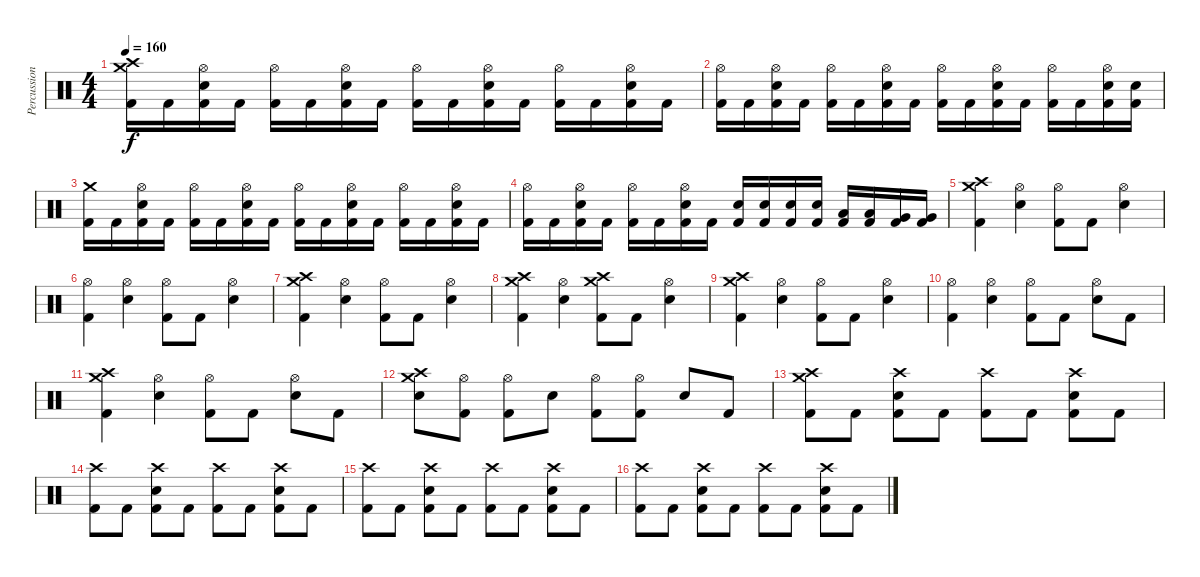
\track ("Percussion" "Percussion") {instrument percussion}
\staff {score}
\articulation defaults
\ts (4 4)
\tempo 160
\clef neutral
\ks c
("Crash medium (hit)" "Crash high (hit)" "Kick (hit) 2").16{dy f} "Kick (hit) 2".16 ("Hi-Hat (open)" "Electric Snare (hit)" "Kick (hit) 2").16 "Kick (hit) 2".16 ("Hi-Hat (open)" "Kick (hit) 2").16 "Kick (hit) 2".16 ("Hi-Hat (open)" "Electric Snare (hit)" "Kick (hit) 2").16 "Kick (hit) 2".16 ("Hi-Hat (open)" "Kick (hit) 2").16 "Kick (hit) 2".16 ("Hi-Hat (open)" "Electric Snare (hit)" "Kick (hit) 2").16 "Kick (hit) 2".16 ("Hi-Hat (open)" "Kick (hit) 2").16 "Kick (hit) 2".16 ("Hi-Hat (open)" "Electric Snare (hit)" "Kick (hit) 2").16 "Kick (hit) 2".16 |
("Hi-Hat (open)" "Kick (hit) 2").16 "Kick (hit) 2".16 ("Hi-Hat (open)" "Electric Snare (hit)" "Kick (hit) 2").16 "Kick (hit) 2".16 ("Hi-Hat (open)" "Kick (hit) 2").16 "Kick (hit) 2".16 ("Hi-Hat (open)" "Electric Snare (hit)" "Kick (hit) 2").16 "Kick (hit) 2".16 ("Hi-Hat (open)" "Kick (hit) 2").16 "Kick (hit) 2".16 ("Hi-Hat (open)" "Electric Snare (hit)" "Kick (hit) 2").16 "Kick (hit) 2".16 ("Hi-Hat (open)" "Kick (hit) 2").16 "Kick (hit) 2".16 ("Hi-Hat (open)" "Electric Snare (hit)" "Kick (hit) 2").16 ("Electric Snare (hit)" "Kick (hit) 2").16 |
("Crash medium (hit)" "Kick (hit) 2").16 "Kick (hit) 2".16 ("Hi-Hat (open)" "Electric Snare (hit)" "Kick (hit) 2").16 "Kick (hit) 2".16 ("Hi-Hat (open)" "Kick (hit) 2").16 "Kick (hit) 2".16 ("Hi-Hat (open)" "Electric Snare (hit)" "Kick (hit) 2").16 "Kick (hit) 2".16 ("Hi-Hat (open)" "Kick (hit) 2").16 "Kick (hit) 2".16 ("Hi-Hat (open)" "Electric Snare (hit)" "Kick (hit) 2").16 "Kick (hit) 2".16 ("Hi-Hat (open)" "Kick (hit) 2").16 "Kick (hit) 2".16 ("Hi-Hat (open)" "Electric Snare (hit)" "Kick (hit) 2").16 "Kick (hit) 2".16 |
("Hi-Hat (open)" "Kick (hit) 2").16 "Kick (hit) 2".16 ("Hi-Hat (open)" "Electric Snare (hit)" "Kick (hit) 2").16 "Kick (hit) 2".16 ("Hi-Hat (open)" "Kick (hit) 2").16 "Kick (hit) 2".16 ("Hi-Hat (open)" "Electric Snare (hit)" "Kick (hit) 2").16 "Kick (hit) 2".16 ("Electric Snare (hit)" "Kick (hit) 2").16 ("Electric Snare (hit)" "Kick (hit) 2").16 ("Electric Snare (hit)" "Kick (hit) 2").16 ("Electric Snare (hit)" "Kick (hit) 2").16 ("Low Tom (hit)" "Kick (hit) 2").16 ("Low Tom (hit)" "Kick (hit) 2").16 ("Very Low Tom (hit)" "Kick (hit) 2").16 ("Very Low Tom (hit)" "Kick (hit) 2").16 |
("Crash medium (hit)" "Crash high (hit)" "Kick (hit) 2").4 ("Hi-Hat (open)" "Electric Snare (hit)").4 ("Hi-Hat (open)" "Kick (hit) 2").8 "Kick (hit) 2".8 ("Hi-Hat (open)" "Electric Snare (hit)").4 |
("Hi-Hat (open)" "Kick (hit) 2").4 ("Hi-Hat (open)" "Electric Snare (hit)").4 ("Hi-Hat (open)" "Kick (hit) 2").8 "Kick (hit) 2".8 ("Hi-Hat (open)" "Electric Snare (hit)").4 |
("Crash medium (hit)" "Crash high (hit)" "Kick (hit) 2").4 ("Hi-Hat (open)" "Electric Snare (hit)").4 ("Hi-Hat (open)" "Kick (hit) 2").8 "Kick (hit) 2".8 ("Hi-Hat (open)" "Electric Snare (hit)").4 |
("Crash medium (hit)" "Crash high (hit)" "Kick (hit) 2").4 ("Hi-Hat (open)" "Electric Snare (hit)").4 ("Crash medium (hit)" "Crash high (hit)" "Kick (hit) 2").8 "Kick (hit) 2".8 ("Hi-Hat (open)" "Electric Snare (hit)").4 |
("Crash medium (hit)" "Crash high (hit)" "Kick (hit) 2").4 ("Hi-Hat (open)" "Electric Snare (hit)").4 ("Hi-Hat (open)" "Kick (hit) 2").8 "Kick (hit) 2".8 ("Hi-Hat (open)" "Electric Snare (hit)").4 |
("Hi-Hat (open)" "Kick (hit) 2").4 ("Hi-Hat (open)" "Electric Snare (hit)").4 ("Hi-Hat (open)" "Kick (hit) 2").8 "Kick (hit) 2".8 ("Hi-Hat (open)" "Electric Snare (hit)").8 "Kick (hit) 2".8 |
("Crash high (hit)" "Crash medium (hit)" "Kick (hit) 2").4 ("Hi-Hat (open)" "Electric Snare (hit)").4 ("Hi-Hat (open)" "Kick (hit) 2").8 "Kick (hit) 2".8 ("Hi-Hat (open)" "Electric Snare (hit)").8 "Kick (hit) 2".8 |
("Crash medium (hit)" "Crash high (hit)" "Electric Snare (hit)").8 ("Hi-Hat (open)" "Kick (hit) 2").8 ("Hi-Hat (open)" "Kick (hit) 2").8 "Electric Snare (hit)".8 ("Hi-Hat (open)" "Kick (hit) 2").8 ("Hi-Hat (open)" "Kick (hit) 2").8 "Electric Snare (hit)".8 "Kick (hit) 2".8 |
("Crash medium (hit)" "Crash high (hit)" "Kick (hit) 2").8 "Kick (hit) 2".8 ("Crash high (hit)" "Electric Snare (hit)" "Kick (hit) 2").8 "Kick (hit) 2".8 ("Crash high (hit)" "Kick (hit) 2").8 "Kick (hit) 2".8 ("Crash high (hit)" "Electric Snare (hit)" "Kick (hit) 2").8 "Kick (hit) 2".8 |
("Crash high (hit)" "Kick (hit) 2").8 "Kick (hit) 2".8 ("Crash high (hit)" "Electric Snare (hit)" "Kick (hit) 2").8 "Kick (hit) 2".8 ("Crash high (hit)" "Kick (hit) 2").8 "Kick (hit) 2".8 ("Crash high (hit)" "Electric Snare (hit)" "Kick (hit) 2").8 "Kick (hit) 2".8 |
("Crash high (hit)" "Kick (hit) 2").8 "Kick (hit) 2".8 ("Crash high (hit)" "Electric Snare (hit)" "Kick (hit) 2").8 "Kick (hit) 2".8 ("Crash high (hit)" "Kick (hit) 2").8 "Kick (hit) 2".8 ("Crash high (hit)" "Electric Snare (hit)" "Kick (hit) 2").8 "Kick (hit) 2".8 |
("Crash high (hit)" "Kick (hit) 2").8 "Kick (hit) 2".8 ("Crash high (hit)" "Electric Snare (hit)" "Kick (hit) 2").8 "Kick (hit) 2".8 ("Crash high (hit)" "Kick (hit) 2").8 "Kick (hit) 2".8 ("Crash high (hit)" "Electric Snare (hit)" "Kick (hit) 2").8 "Kick (hit) 2".8
